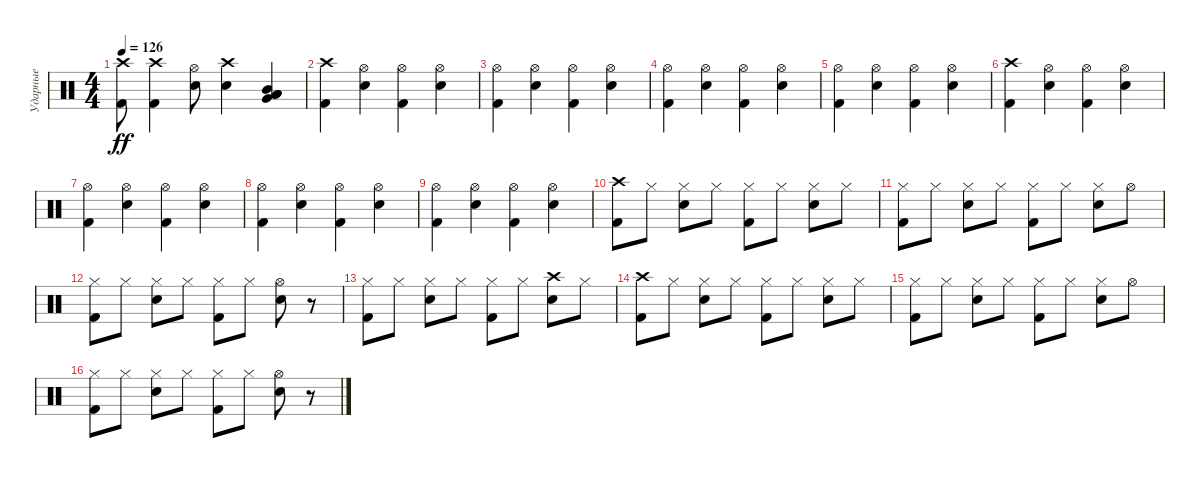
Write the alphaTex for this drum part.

\track ("Ударные" "Ударные") {instrument percussion}
\staff {score}
\articulation defaults
\ts (4 4)
\tempo 126
\clef neutral
\ks c
("Kick (hit) 2" "Crash high (hit)").8{dy ff} ("Kick (hit) 2" "Crash high (hit)").4 ("Electric Snare (hit)" "Hi-Hat (open)").8 ("Crash high (hit)" "Electric Snare (hit)").4 ("Low Tom (hit)" "Very Low Tom (hit)" "Mid Tom (hit)" "Low Floor Tom (hit)").4 |
("Crash high (hit)" "Kick (hit) 2").4 ("Hi-Hat (open)" "Electric Snare (hit)").4 ("Hi-Hat (open)" "Kick (hit) 2").4 ("Hi-Hat (open)" "Electric Snare (hit)").4 |
("Hi-Hat (open)" "Kick (hit) 2").4 ("Hi-Hat (open)" "Electric Snare (hit)").4 ("Hi-Hat (open)" "Kick (hit) 2").4 ("Hi-Hat (open)" "Electric Snare (hit)").4 |
("Hi-Hat (open)" "Kick (hit) 2").4 ("Hi-Hat (open)" "Electric Snare (hit)").4 ("Hi-Hat (open)" "Kick (hit) 2").4 ("Hi-Hat (open)" "Electric Snare (hit)").4 |
("Hi-Hat (open)" "Kick (hit) 2").4 ("Hi-Hat (open)" "Electric Snare (hit)").4 ("Hi-Hat (open)" "Kick (hit) 2").4 ("Hi-Hat (open)" "Electric Snare (hit)").4 |
("Crash high (hit)" "Kick (hit) 2").4 ("Hi-Hat (open)" "Electric Snare (hit)").4 ("Hi-Hat (open)" "Kick (hit) 2").4 ("Hi-Hat (open)" "Electric Snare (hit)").4 |
("Hi-Hat (open)" "Kick (hit) 2").4 ("Hi-Hat (open)" "Electric Snare (hit)").4 ("Hi-Hat (open)" "Kick (hit) 2").4 ("Hi-Hat (open)" "Electric Snare (hit)").4 |
("Hi-Hat (open)" "Kick (hit) 2").4 ("Hi-Hat (open)" "Electric Snare (hit)").4 ("Hi-Hat (open)" "Kick (hit) 2").4 ("Hi-Hat (open)" "Electric Snare (hit)").4 |
("Hi-Hat (open)" "Kick (hit) 2").4 ("Hi-Hat (open)" "Electric Snare (hit)").4 ("Hi-Hat (open)" "Kick (hit) 2").4 ("Hi-Hat (open)" "Electric Snare (hit)").4 |
("Crash high (hit)" "Kick (hit) 2").8 "Hi-Hat (closed)".8 ("Hi-Hat (closed)" "Electric Snare (hit)").8 "Hi-Hat (closed)".8 ("Hi-Hat (closed)" "Kick (hit) 2").8 "Hi-Hat (closed)".8 ("Electric Snare (hit)" "Hi-Hat (closed)").8 "Hi-Hat (closed)".8 |
("Hi-Hat (closed)" "Kick (hit) 2").8 "Hi-Hat (closed)".8 ("Hi-Hat (closed)" "Electric Snare (hit)").8 "Hi-Hat (closed)".8 ("Hi-Hat (closed)" "Kick (hit) 2").8 "Hi-Hat (closed)".8 ("Electric Snare (hit)" "Hi-Hat (closed)").8 "Hi-Hat (open)".8 |
("Hi-Hat (closed)" "Kick (hit) 2").8 "Hi-Hat (closed)".8 ("Hi-Hat (closed)" "Electric Snare (hit)").8 "Hi-Hat (closed)".8 ("Hi-Hat (closed)" "Kick (hit) 2").8 "Hi-Hat (closed)".8 ("Electric Snare (hit)" "Hi-Hat (open)").8 r.8 |
("Hi-Hat (closed)" "Kick (hit) 2").8 "Hi-Hat (closed)".8 ("Hi-Hat (closed)" "Electric Snare (hit)").8 "Hi-Hat (closed)".8 ("Hi-Hat (closed)" "Kick (hit) 2").8 "Hi-Hat (closed)".8 ("Electric Snare (hit)" "Crash high (hit)").8 "Hi-Hat (closed)".8 |
("Crash high (hit)" "Kick (hit) 2").8 "Hi-Hat (closed)".8 ("Hi-Hat (closed)" "Electric Snare (hit)").8 "Hi-Hat (closed)".8 ("Hi-Hat (closed)" "Kick (hit) 2").8 "Hi-Hat (closed)".8 ("Electric Snare (hit)" "Hi-Hat (closed)").8 "Hi-Hat (closed)".8 |
("Hi-Hat (closed)" "Kick (hit) 2").8 "Hi-Hat (closed)".8 ("Hi-Hat (closed)" "Electric Snare (hit)").8 "Hi-Hat (closed)".8 ("Hi-Hat (closed)" "Kick (hit) 2").8 "Hi-Hat (closed)".8 ("Electric Snare (hit)" "Hi-Hat (closed)").8 "Hi-Hat (open)".8 |
("Hi-Hat (closed)" "Kick (hit) 2").8 "Hi-Hat (closed)".8 ("Hi-Hat (closed)" "Electric Snare (hit)").8 "Hi-Hat (closed)".8 ("Hi-Hat (closed)" "Kick (hit) 2").8 "Hi-Hat (closed)".8 ("Electric Snare (hit)" "Hi-Hat (open)").8 r.8
